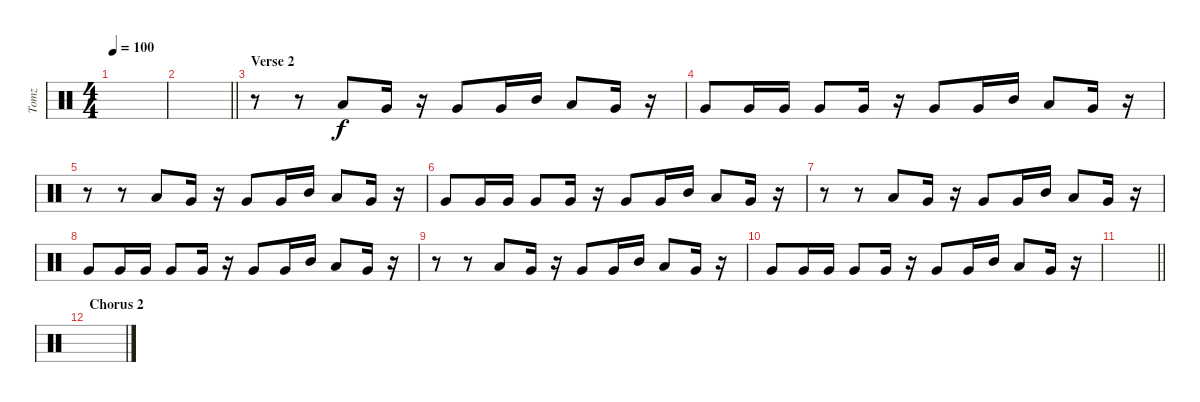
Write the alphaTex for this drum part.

\track ("Tomz" "Tomz") {instrument percussion}
\staff {score}
\articulation defaults
\ts (4 4)
\tempo 100
\clef neutral
\ks c
|
\barLineRight lightlight
|
\section ("" "Verse 2")
r.8 r.8 "Low Tom (hit)".8 "Very Low Tom (hit)".16 r.16 "Very Low Tom (hit)".8 "Very Low Tom (hit)".16 "Mid Tom (hit)".16 "Low Tom (hit)".8 "Very Low Tom (hit)".16 r.16 |
"Very Low Tom (hit)".8 "Very Low Tom (hit)".16 "Very Low Tom (hit)".16 "Very Low Tom (hit)".8 "Very Low Tom (hit)".16 r.16 "Very Low Tom (hit)".8 "Very Low Tom (hit)".16 "Mid Tom (hit)".16 "Low Tom (hit)".8 "Very Low Tom (hit)".16 r.16 |
r.8 r.8 "Low Tom (hit)".8 "Very Low Tom (hit)".16 r.16 "Very Low Tom (hit)".8 "Very Low Tom (hit)".16 "Mid Tom (hit)".16 "Low Tom (hit)".8 "Very Low Tom (hit)".16 r.16 |
"Very Low Tom (hit)".8 "Very Low Tom (hit)".16 "Very Low Tom (hit)".16 "Very Low Tom (hit)".8 "Very Low Tom (hit)".16 r.16 "Very Low Tom (hit)".8 "Very Low Tom (hit)".16 "Mid Tom (hit)".16 "Low Tom (hit)".8 "Very Low Tom (hit)".16 r.16 |
r.8 r.8 "Low Tom (hit)".8 "Very Low Tom (hit)".16 r.16 "Very Low Tom (hit)".8 "Very Low Tom (hit)".16 "Mid Tom (hit)".16 "Low Tom (hit)".8 "Very Low Tom (hit)".16 r.16 |
"Very Low Tom (hit)".8 "Very Low Tom (hit)".16 "Very Low Tom (hit)".16 "Very Low Tom (hit)".8 "Very Low Tom (hit)".16 r.16 "Very Low Tom (hit)".8 "Very Low Tom (hit)".16 "Mid Tom (hit)".16 "Low Tom (hit)".8 "Very Low Tom (hit)".16 r.16 |
r.8 r.8 "Low Tom (hit)".8 "Very Low Tom (hit)".16 r.16 "Very Low Tom (hit)".8 "Very Low Tom (hit)".16 "Mid Tom (hit)".16 "Low Tom (hit)".8 "Very Low Tom (hit)".16 r.16 |
"Very Low Tom (hit)".8 "Very Low Tom (hit)".16 "Very Low Tom (hit)".16 "Very Low Tom (hit)".8 "Very Low Tom (hit)".16 r.16 "Very Low Tom (hit)".8 "Very Low Tom (hit)".16 "Mid Tom (hit)".16 "Low Tom (hit)".8 "Very Low Tom (hit)".16 r.16 |
\barLineRight lightlight
|
\section ("" "Chorus 2")
